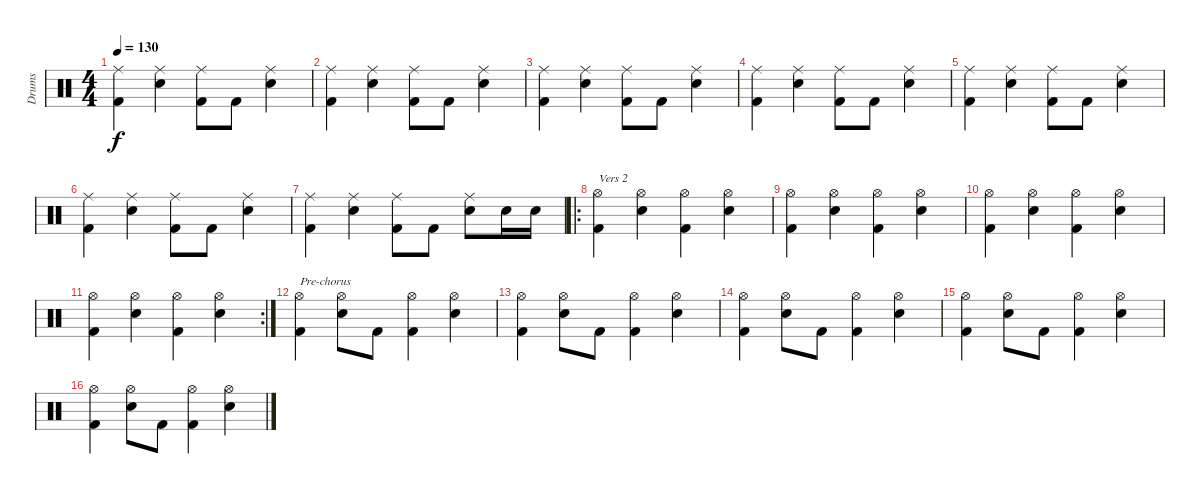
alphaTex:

\track ("Drums" "Drums") {instrument percussion}
\staff {score}
\articulation defaults
\ts (4 4)
\tempo 130
\clef neutral
\ks c
("Ride (middle)" "Kick (hit) 2").4{dy f} ("Ride (middle)" "Snare (hit) 2").4 ("Ride (middle)" "Kick (hit) 2").8 "Kick (hit) 2".8 ("Ride (middle)" "Snare (hit) 2").4 |
("Ride (middle)" "Kick (hit) 2").4 ("Ride (middle)" "Snare (hit) 2").4 ("Ride (middle)" "Kick (hit) 2").8 "Kick (hit) 2".8 ("Ride (middle)" "Snare (hit) 2").4 |
("Ride (middle)" "Kick (hit) 2").4 ("Ride (middle)" "Snare (hit) 2").4 ("Ride (middle)" "Kick (hit) 2").8 "Kick (hit) 2".8 ("Ride (middle)" "Snare (hit) 2").4 |
("Ride (middle)" "Kick (hit) 2").4 ("Ride (middle)" "Snare (hit) 2").4 ("Ride (middle)" "Kick (hit) 2").8 "Kick (hit) 2".8 ("Ride (middle)" "Snare (hit) 2").4 |
("Ride (middle)" "Kick (hit) 2").4 ("Ride (middle)" "Snare (hit) 2").4 ("Ride (middle)" "Kick (hit) 2").8 "Kick (hit) 2".8 ("Ride (middle)" "Snare (hit) 2").4 |
("Ride (middle)" "Kick (hit) 2").4 ("Ride (middle)" "Snare (hit) 2").4 ("Ride (middle)" "Kick (hit) 2").8 "Kick (hit) 2".8 ("Ride (middle)" "Snare (hit) 2").4 |
("Ride (middle)" "Kick (hit) 2").4 ("Ride (middle)" "Snare (hit) 2").4 ("Ride (middle)" "Kick (hit) 2").8 "Kick (hit) 2".8 ("Ride (middle)" "Snare (hit) 2").8 "Snare (hit) 2".16 "Snare (hit) 2".16 |
\ro
("Hi-Hat (open)" "Kick (hit) 2").4{txt "Vers 2"} ("Hi-Hat (open)" "Snare (hit) 2").4 ("Hi-Hat (open)" "Kick (hit) 2").4 ("Hi-Hat (open)" "Snare (hit) 2").4 |
("Hi-Hat (open)" "Kick (hit) 2").4 ("Hi-Hat (open)" "Snare (hit) 2").4 ("Hi-Hat (open)" "Kick (hit) 2").4 ("Hi-Hat (open)" "Snare (hit) 2").4 |
("Hi-Hat (open)" "Kick (hit) 2").4 ("Hi-Hat (open)" "Snare (hit) 2").4 ("Hi-Hat (open)" "Kick (hit) 2").4 ("Hi-Hat (open)" "Snare (hit) 2").4 |
\rc 2
("Hi-Hat (open)" "Kick (hit) 2").4 ("Hi-Hat (open)" "Snare (hit) 2").4 ("Hi-Hat (open)" "Kick (hit) 2").4 ("Hi-Hat (open)" "Snare (hit) 2").4 |
("Hi-Hat (open)" "Kick (hit) 2").4{txt "Pre-chorus"} ("Hi-Hat (open)" "Snare (hit) 2").8 "Kick (hit) 2".8 ("Hi-Hat (open)" "Kick (hit) 2").4 ("Hi-Hat (open)" "Snare (hit) 2").4 |
("Hi-Hat (open)" "Kick (hit) 2").4 ("Hi-Hat (open)" "Snare (hit) 2").8 "Kick (hit) 2".8 ("Hi-Hat (open)" "Kick (hit) 2").4 ("Hi-Hat (open)" "Snare (hit) 2").4 |
("Hi-Hat (open)" "Kick (hit) 2").4 ("Hi-Hat (open)" "Snare (hit) 2").8 "Kick (hit) 2".8 ("Hi-Hat (open)" "Kick (hit) 2").4 ("Hi-Hat (open)" "Snare (hit) 2").4 |
("Hi-Hat (open)" "Kick (hit) 2").4 ("Hi-Hat (open)" "Snare (hit) 2").8 "Kick (hit) 2".8 ("Hi-Hat (open)" "Kick (hit) 2").4 ("Hi-Hat (open)" "Snare (hit) 2").4 |
("Hi-Hat (open)" "Kick (hit) 2").4 ("Hi-Hat (open)" "Snare (hit) 2").8 "Kick (hit) 2".8 ("Hi-Hat (open)" "Kick (hit) 2").4 ("Hi-Hat (open)" "Snare (hit) 2").4
